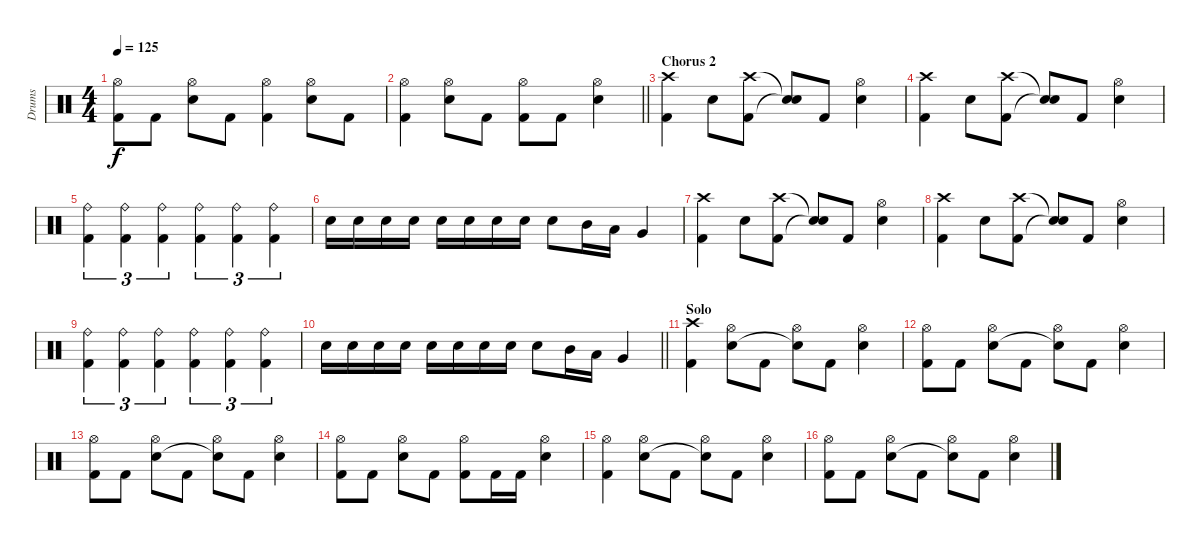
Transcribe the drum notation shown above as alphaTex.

\track ("Drums" "Drums") {instrument percussion}
\staff {score}
\articulation defaults
\ts (4 4)
\tempo 125
\clef neutral
\ks c
("Hi-Hat (open)" "Kick (hit) 2").8{dy f} "Kick (hit) 2".8 ("Hi-Hat (open)" "Snare (hit) 2").8 "Kick (hit) 2".8 ("Hi-Hat (open)" "Kick (hit) 2").4 ("Hi-Hat (open)" "Snare (hit) 2").8 "Kick (hit) 2".8 |
\barLineRight lightlight
("Hi-Hat (open)" "Kick (hit) 2").4 ("Hi-Hat (open)" "Snare (hit) 2").8 "Kick (hit) 2".8 ("Hi-Hat (open)" "Kick (hit) 2").8 "Kick (hit) 2".8 ("Hi-Hat (open)" "Snare (hit) 2").4 |
\section ("" "Chorus 2")
("Crash high (hit)" "Kick (hit) 2").4 "Snare (hit) 2".8 ("Crash high (hit)" "Kick (hit) 2").8 ("Snare (hit)"{t} "Snare (hit)"{t}).8 "Kick (hit) 2".8 ("Hi-Hat (open)" "Snare (hit) 2").4 |
("Crash high (hit)" "Kick (hit) 2").4 "Snare (hit) 2".8 ("Crash high (hit)" "Kick (hit) 2").8 ("Snare (hit)"{t} "Snare (hit)"{t}).8 "Kick (hit) 2".8 ("Hi-Hat (open)" "Snare (hit) 2").4 |
("Ride (bell)" "Kick (hit) 2").4{tu (3 2)} ("Ride (bell)" "Kick (hit) 2").4{tu (3 2)} ("Ride (bell)" "Kick (hit) 2").4{tu (3 2)} ("Ride (bell)" "Kick (hit) 2").4{tu (3 2)} ("Ride (bell)" "Kick (hit) 2").4{tu (3 2)} ("Ride (bell)" "Kick (hit) 2").4{tu (3 2)} |
"Snare (hit) 2".16 "Snare (hit) 2".16 "Snare (hit) 2".16 "Snare (hit) 2".16 "Snare (hit) 2".16 "Snare (hit) 2".16 "Snare (hit) 2".16 "Snare (hit) 2".16 "Snare (hit) 2".8 "Mid Tom (hit)".16 "Low Tom (hit)".16 "Very Low Tom (hit)".4 |
("Crash high (hit)" "Kick (hit) 2").4 "Snare (hit) 2".8 ("Crash high (hit)" "Kick (hit) 2").8 ("Snare (hit)"{t} "Snare (hit)"{t}).8 "Kick (hit) 2".8 ("Hi-Hat (open)" "Snare (hit) 2").4 |
("Crash high (hit)" "Kick (hit) 2").4 "Snare (hit) 2".8 ("Crash high (hit)" "Kick (hit) 2").8 ("Snare (hit)"{t} "Snare (hit)"{t}).8 "Kick (hit) 2".8 ("Hi-Hat (open)" "Snare (hit) 2").4 |
("Ride (bell)" "Kick (hit) 2").4{tu (3 2)} ("Ride (bell)" "Kick (hit) 2").4{tu (3 2)} ("Ride (bell)" "Kick (hit) 2").4{tu (3 2)} ("Ride (bell)" "Kick (hit) 2").4{tu (3 2)} ("Ride (bell)" "Kick (hit) 2").4{tu (3 2)} ("Ride (bell)" "Kick (hit) 2").4{tu (3 2)} |
\barLineRight lightlight "Snare (hit) 2".16 "Snare (hit) 2".16 "Snare (hit) 2".16 "Snare (hit) 2".16 "Snare (hit) 2".16 "Snare (hit) 2".16 "Snare (hit) 2".16 "Snare (hit) 2".16 "Snare (hit) 2".8 "Mid Tom (hit)".16 "Low Tom (hit)".16 "Very Low Tom (hit)".4
|
\section ("" "Solo")
("Crash high (hit)" "Kick (hit) 2").4 ("Hi-Hat (open)" "Snare (hit) 2").8 "Kick (hit) 2".8 ("Hi-Hat (open)" "Snare (hit)"{t}).8 "Kick (hit) 2".8 ("Hi-Hat (open)" "Snare (hit) 2").4 |
("Hi-Hat (open)" "Kick (hit) 2").8 "Kick (hit) 2".8 ("Hi-Hat (open)" "Snare (hit) 2").8 "Kick (hit) 2".8 ("Hi-Hat (open)" "Snare (hit)"{t}).8 "Kick (hit) 2".8 ("Hi-Hat (open)" "Snare (hit) 2").4 |
("Hi-Hat (open)" "Kick (hit) 2").8 "Kick (hit) 2".8 ("Hi-Hat (open)" "Snare (hit) 2").8 "Kick (hit) 2".8 ("Hi-Hat (open)" "Snare (hit)"{t}).8 "Kick (hit) 2".8 ("Hi-Hat (open)" "Snare (hit) 2").4 |
("Hi-Hat (open)" "Kick (hit) 2").8 "Kick (hit) 2".8 ("Hi-Hat (open)" "Snare (hit) 2").8 "Kick (hit) 2".8 ("Hi-Hat (open)" "Kick (hit) 2").8 "Kick (hit) 2".16 "Kick (hit) 2".16 ("Hi-Hat (open)" "Snare (hit) 2").4 |
("Hi-Hat (open)" "Kick (hit) 2").4 ("Hi-Hat (open)" "Snare (hit) 2").8 "Kick (hit) 2".8 ("Hi-Hat (open)" "Snare (hit)"{t}).8 "Kick (hit) 2".8 ("Hi-Hat (open)" "Snare (hit) 2").4 |
("Hi-Hat (open)" "Kick (hit) 2").8 "Kick (hit) 2".8 ("Hi-Hat (open)" "Snare (hit) 2").8 "Kick (hit) 2".8 ("Hi-Hat (open)" "Snare (hit)"{t}).8 "Kick (hit) 2".8 ("Hi-Hat (open)" "Snare (hit) 2").4
